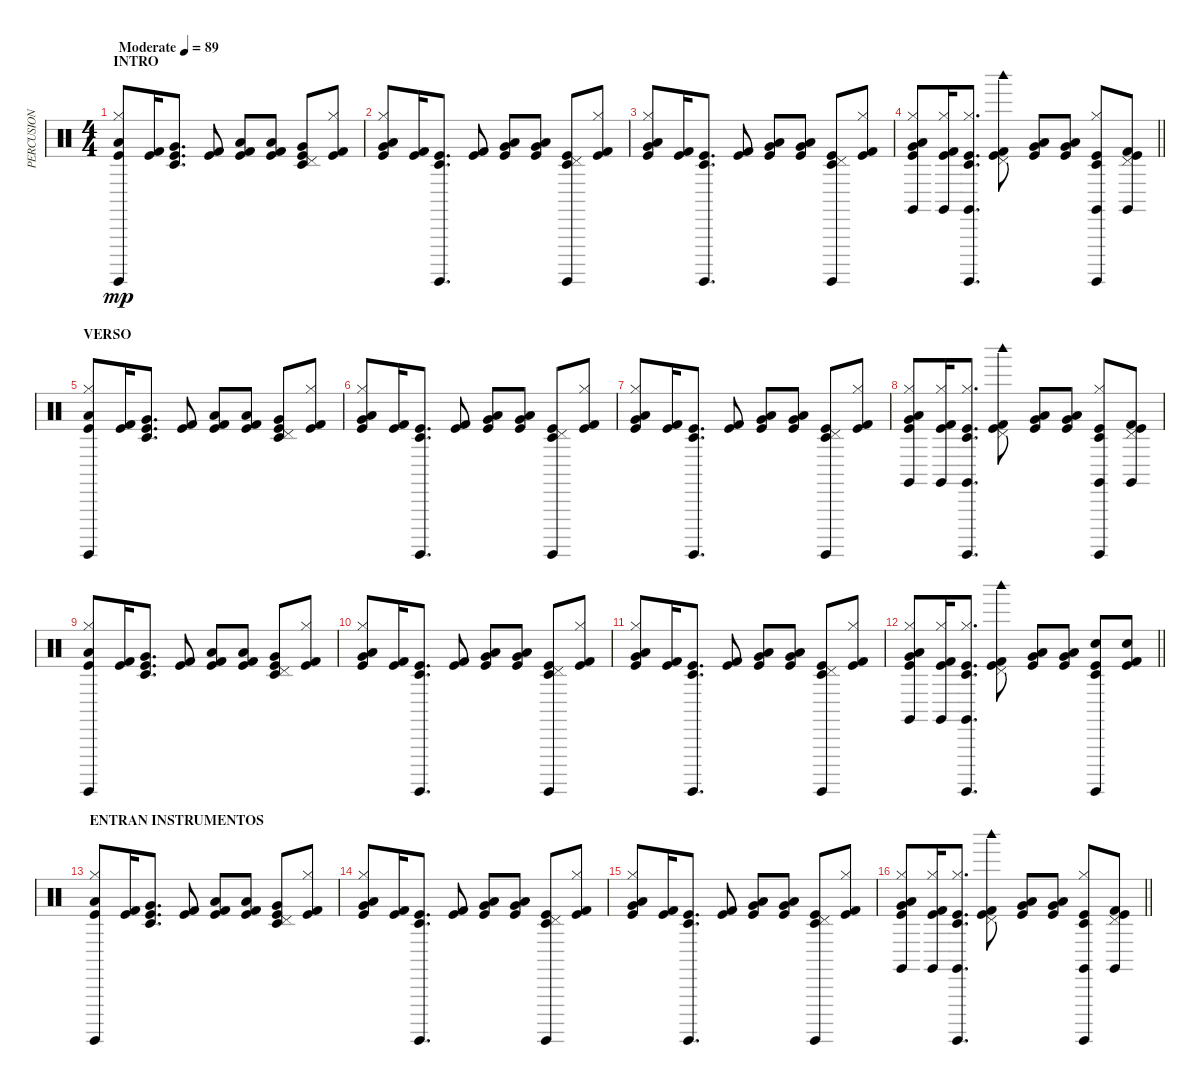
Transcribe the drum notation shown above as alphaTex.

\track ("PERCUSION" "PERCUSION") {instrument percussion}
\staff {score}
\articulation defaults
\ts (4 4)
\section ("" "INTRO")
\tempo (89 "Moderate")
\clef neutral
\ks c
("Kick (hit)" "Hi-Hat (closed)" "Surdo (hit)" "Low Floor Tom (hit)").8{dy mp volume 5} ("Kick (hit)" "Kick (hit) 2").16 ("Kick (hit)" "Very Low Tom (hit)" "Timbale low (hit)").8{d} ("Kick (hit)" "Kick (hit) 2").8 ("Kick (hit)" "Kick (hit) 2" "Low Floor Tom (hit)").8 ("Kick (hit)" "Kick (hit) 2" "Low Floor Tom (hit)").8 ("Kick (hit)" "Pedal Hi-Hat (hit)" "Very Low Tom (hit)" "Timbale low (hit)").8 ("Kick (hit)" "Hi-Hat (closed)" "Kick (hit) 2").8 |
("Kick (hit)" "Hi-Hat (closed)" "Very Low Tom (hit)" "Low Floor Tom (hit)").8 ("Kick (hit)" "Kick (hit) 2").16 ("Kick (hit)" "Surdo (hit)" "Timbale low (hit)").8{d} ("Kick (hit)" "Kick (hit) 2").8 ("Kick (hit)" "Very Low Tom (hit)" "Low Floor Tom (hit)").8 ("Kick (hit)" "Very Low Tom (hit)" "Low Floor Tom (hit)").8 ("Kick (hit)" "Pedal Hi-Hat (hit)" "Surdo (hit)" "Timbale low (hit)").8 ("Kick (hit)" "Hi-Hat (closed)" "Kick (hit) 2").8 |
("Kick (hit)" "Hi-Hat (closed)" "Very Low Tom (hit)" "Low Floor Tom (hit)").8 ("Kick (hit)" "Kick (hit) 2").16 ("Kick (hit)" "Surdo (hit)" "Timbale low (hit)").8{d} ("Kick (hit)" "Kick (hit) 2").8 ("Kick (hit)" "Very Low Tom (hit)" "Low Floor Tom (hit)").8 ("Kick (hit)" "Very Low Tom (hit)" "Low Floor Tom (hit)").8 ("Kick (hit)" "Pedal Hi-Hat (hit)" "Surdo (hit)" "Timbale low (hit)").8 ("Kick (hit)" "Hi-Hat (closed)" "Kick (hit) 2").8 |
\barLineRight lightlight
("Kick (hit)" "Claves (hit)" "Hi-Hat (closed)" "Very Low Tom (hit)" "Low Floor Tom (hit)").8 ("Kick (hit)" "Claves (hit)" "Hi-Hat (closed)" "Kick (hit) 2").16 ("Kick (hit)" "Claves (hit)" "Hi-Hat (closed)" "Surdo (hit)" "Timbale low (hit)").8{d} ("Kick (hit)" "Woodblock high (hit)" "Pedal Hi-Hat (hit)" "Kick (hit) 2").8 ("Kick (hit)" "Very Low Tom (hit)" "Low Floor Tom (hit)").8 ("Kick (hit)" "Very Low Tom (hit)" "Low Floor Tom (hit)").8 ("Kick (hit)" "Claves (hit)" "Hi-Hat (closed)" "Surdo (hit)" "Timbale low (hit)").8 ("Kick (hit)" "Claves (hit)" "Pedal Hi-Hat (hit)" "Kick (hit) 2").8 |
\section ("" "VERSO")
("Kick (hit)" "Hi-Hat (closed)" "Surdo (hit)" "Low Floor Tom (hit)").8 ("Kick (hit)" "Kick (hit) 2").16 ("Kick (hit)" "Very Low Tom (hit)" "Timbale low (hit)").8{d} ("Kick (hit)" "Kick (hit) 2").8 ("Kick (hit)" "Kick (hit) 2" "Low Floor Tom (hit)").8 ("Kick (hit)" "Kick (hit) 2" "Low Floor Tom (hit)").8 ("Kick (hit)" "Pedal Hi-Hat (hit)" "Very Low Tom (hit)" "Timbale low (hit)").8 ("Kick (hit)" "Hi-Hat (closed)" "Kick (hit) 2").8 |
("Kick (hit)" "Hi-Hat (closed)" "Very Low Tom (hit)" "Low Floor Tom (hit)").8 ("Kick (hit)" "Kick (hit) 2").16 ("Kick (hit)" "Surdo (hit)" "Timbale low (hit)").8{d} ("Kick (hit)" "Kick (hit) 2").8 ("Kick (hit)" "Very Low Tom (hit)" "Low Floor Tom (hit)").8 ("Kick (hit)" "Very Low Tom (hit)" "Low Floor Tom (hit)").8 ("Kick (hit)" "Pedal Hi-Hat (hit)" "Surdo (hit)" "Timbale low (hit)").8 ("Kick (hit)" "Hi-Hat (closed)" "Kick (hit) 2").8 |
("Kick (hit)" "Hi-Hat (closed)" "Very Low Tom (hit)" "Low Floor Tom (hit)").8 ("Kick (hit)" "Kick (hit) 2").16 ("Kick (hit)" "Surdo (hit)" "Timbale low (hit)").8{d} ("Kick (hit)" "Kick (hit) 2").8 ("Kick (hit)" "Very Low Tom (hit)" "Low Floor Tom (hit)").8 ("Kick (hit)" "Very Low Tom (hit)" "Low Floor Tom (hit)").8 ("Kick (hit)" "Pedal Hi-Hat (hit)" "Surdo (hit)" "Timbale low (hit)").8 ("Kick (hit)" "Hi-Hat (closed)" "Kick (hit) 2").8 |
("Kick (hit)" "Claves (hit)" "Hi-Hat (closed)" "Very Low Tom (hit)" "Low Floor Tom (hit)").8 ("Kick (hit)" "Claves (hit)" "Hi-Hat (closed)" "Kick (hit) 2").16 ("Kick (hit)" "Claves (hit)" "Hi-Hat (closed)" "Surdo (hit)" "Timbale low (hit)").8{d} ("Kick (hit)" "Woodblock high (hit)" "Pedal Hi-Hat (hit)" "Kick (hit) 2").8 ("Kick (hit)" "Very Low Tom (hit)" "Low Floor Tom (hit)").8 ("Kick (hit)" "Very Low Tom (hit)" "Low Floor Tom (hit)").8 ("Kick (hit)" "Claves (hit)" "Hi-Hat (closed)" "Surdo (hit)" "Timbale low (hit)").8 ("Kick (hit)" "Claves (hit)" "Pedal Hi-Hat (hit)" "Kick (hit) 2").8 |
("Kick (hit)" "Hi-Hat (closed)" "Surdo (hit)" "Low Floor Tom (hit)").8 ("Kick (hit)" "Kick (hit) 2").16 ("Kick (hit)" "Very Low Tom (hit)" "Timbale low (hit)").8{d} ("Kick (hit)" "Kick (hit) 2").8 ("Kick (hit)" "Kick (hit) 2" "Low Floor Tom (hit)").8 ("Kick (hit)" "Kick (hit) 2" "Low Floor Tom (hit)").8 ("Kick (hit)" "Pedal Hi-Hat (hit)" "Very Low Tom (hit)" "Timbale low (hit)").8 ("Kick (hit)" "Hi-Hat (closed)" "Kick (hit) 2").8 |
("Kick (hit)" "Hi-Hat (closed)" "Very Low Tom (hit)" "Low Floor Tom (hit)").8 ("Kick (hit)" "Kick (hit) 2").16 ("Kick (hit)" "Surdo (hit)" "Timbale low (hit)").8{d} ("Kick (hit)" "Kick (hit) 2").8 ("Kick (hit)" "Very Low Tom (hit)" "Low Floor Tom (hit)").8 ("Kick (hit)" "Very Low Tom (hit)" "Low Floor Tom (hit)").8 ("Kick (hit)" "Pedal Hi-Hat (hit)" "Surdo (hit)" "Timbale low (hit)").8 ("Kick (hit)" "Hi-Hat (closed)" "Kick (hit) 2").8 |
("Kick (hit)" "Hi-Hat (closed)" "Very Low Tom (hit)" "Low Floor Tom (hit)").8 ("Kick (hit)" "Kick (hit) 2").16 ("Kick (hit)" "Surdo (hit)" "Timbale low (hit)").8{d} ("Kick (hit)" "Kick (hit) 2").8 ("Kick (hit)" "Very Low Tom (hit)" "Low Floor Tom (hit)").8 ("Kick (hit)" "Very Low Tom (hit)" "Low Floor Tom (hit)").8 ("Kick (hit)" "Pedal Hi-Hat (hit)" "Surdo (hit)" "Timbale low (hit)").8 ("Kick (hit)" "Hi-Hat (closed)" "Kick (hit) 2").8 |
\barLineRight lightlight
("Kick (hit)" "Claves (hit)" "Hi-Hat (closed)" "Very Low Tom (hit)" "Low Floor Tom (hit)").8 ("Kick (hit)" "Claves (hit)" "Hi-Hat (closed)" "Kick (hit) 2").16 ("Kick (hit)" "Claves (hit)" "Hi-Hat (closed)" "Surdo (hit)" "Timbale low (hit)").8{d} ("Kick (hit)" "Woodblock high (hit)" "Pedal Hi-Hat (hit)" "Kick (hit) 2").8 ("Kick (hit)" "Very Low Tom (hit)" "Low Floor Tom (hit)").8 ("Kick (hit)" "Very Low Tom (hit)" "Low Floor Tom (hit)").8 ("Kick (hit)" "Snare (hit) 2" "Surdo (hit)" "Timbale low (hit)").8 ("Kick (hit)" "Snare (hit) 2" "Kick (hit) 2").8 |
\section ("" "ENTRAN INSTRUMENTOS")
("Kick (hit)" "Hi-Hat (closed)" "Surdo (hit)" "Low Floor Tom (hit)").8 ("Kick (hit)" "Kick (hit) 2").16 ("Kick (hit)" "Very Low Tom (hit)" "Timbale low (hit)").8{d} ("Kick (hit)" "Kick (hit) 2").8 ("Kick (hit)" "Kick (hit) 2" "Low Floor Tom (hit)").8 ("Kick (hit)" "Kick (hit) 2" "Low Floor Tom (hit)").8 ("Kick (hit)" "Pedal Hi-Hat (hit)" "Very Low Tom (hit)" "Timbale low (hit)").8 ("Kick (hit)" "Hi-Hat (closed)" "Kick (hit) 2").8 |
("Kick (hit)" "Hi-Hat (closed)" "Very Low Tom (hit)" "Low Floor Tom (hit)").8 ("Kick (hit)" "Kick (hit) 2").16 ("Kick (hit)" "Surdo (hit)" "Timbale low (hit)").8{d} ("Kick (hit)" "Kick (hit) 2").8 ("Kick (hit)" "Very Low Tom (hit)" "Low Floor Tom (hit)").8 ("Kick (hit)" "Very Low Tom (hit)" "Low Floor Tom (hit)").8 ("Kick (hit)" "Pedal Hi-Hat (hit)" "Surdo (hit)" "Timbale low (hit)").8 ("Kick (hit)" "Hi-Hat (closed)" "Kick (hit) 2").8 |
("Kick (hit)" "Hi-Hat (closed)" "Very Low Tom (hit)" "Low Floor Tom (hit)").8 ("Kick (hit)" "Kick (hit) 2").16 ("Kick (hit)" "Surdo (hit)" "Timbale low (hit)").8{d} ("Kick (hit)" "Kick (hit) 2").8 ("Kick (hit)" "Very Low Tom (hit)" "Low Floor Tom (hit)").8 ("Kick (hit)" "Very Low Tom (hit)" "Low Floor Tom (hit)").8 ("Kick (hit)" "Pedal Hi-Hat (hit)" "Surdo (hit)" "Timbale low (hit)").8 ("Kick (hit)" "Hi-Hat (closed)" "Kick (hit) 2").8 |
\barLineRight lightlight
("Kick (hit)" "Claves (hit)" "Hi-Hat (closed)" "Very Low Tom (hit)" "Low Floor Tom (hit)").8 ("Kick (hit)" "Claves (hit)" "Hi-Hat (closed)" "Kick (hit) 2").16 ("Kick (hit)" "Claves (hit)" "Hi-Hat (closed)" "Surdo (hit)" "Timbale low (hit)").8{d} ("Kick (hit)" "Woodblock high (hit)" "Pedal Hi-Hat (hit)" "Kick (hit) 2").8 ("Kick (hit)" "Very Low Tom (hit)" "Low Floor Tom (hit)").8 ("Kick (hit)" "Very Low Tom (hit)" "Low Floor Tom (hit)").8 ("Kick (hit)" "Claves (hit)" "Hi-Hat (closed)" "Surdo (hit)" "Timbale low (hit)").8 ("Kick (hit)" "Claves (hit)" "Pedal Hi-Hat (hit)" "Kick (hit) 2").8
